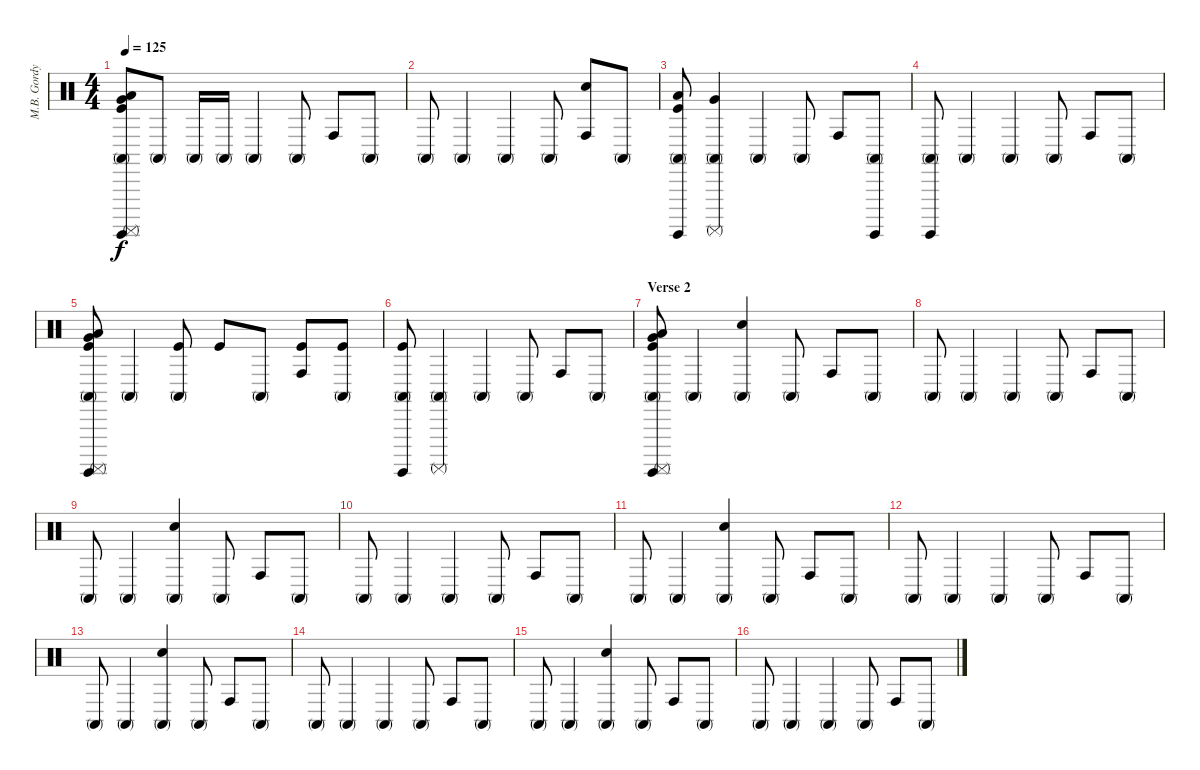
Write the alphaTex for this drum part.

\track ("M.B. Gordy [Percüsion]" "M.B. Gordy") {instrument percussion}
\staff {score}
\articulation defaults
\ts (4 4)
\tempo 125
\clef neutral
\ks c
("Surdo (mute)" "Surdo (hit)" "Very Low Tom (hit)" "Conga high (mute)" "Low Floor Tom (hit)" "Kick (hit)").8{dy f} "Conga high (mute)".8 "Conga high (mute)".16 "Conga high (mute)".16 "Conga high (mute)".4 "Conga high (mute)".8 "Conga high (hit)".8 "Conga high (mute)".8 |
"Conga high (mute)".8 "Conga high (mute)".4 "Conga high (mute)".4 "Conga high (mute)".8 ("Hand Clap (hit)" "Conga high (hit)").8 "Conga high (mute)".8 |
("Surdo (hit)" "Conga high (mute)" "Low Floor Tom (hit)" "Kick (hit)").8 ("Surdo (mute)" "Conga high (mute)" "Very Low Tom (hit)").4 "Conga high (mute)".4 "Conga high (mute)".8 "Conga high (hit)".8 ("Surdo (hit)" "Conga high (mute)").8 |
("Surdo (hit)" "Conga high (mute)").8 "Conga high (mute)".4 "Conga high (mute)".4 "Conga high (mute)".8 "Conga high (hit)".8 "Conga high (mute)".8 |
("Surdo (mute)" "Surdo (hit)" "Very Low Tom (hit)" "Conga high (mute)" "Low Floor Tom (hit)" "Kick (hit)").8 "Conga high (mute)".4 ("Conga high (mute)" "Kick (hit)").8 "Kick (hit)".8 "Conga high (mute)".8 ("Conga high (hit)" "Kick (hit)").8 ("Conga high (mute)" "Kick (hit)").8 |
("Surdo (hit)" "Conga high (mute)" "Kick (hit)").8 ("Surdo (mute)" "Conga high (mute)").4 "Conga high (mute)".4 "Conga high (mute)".8 "Conga high (hit)".8 "Conga high (mute)".8 |
\section ("" "Verse 2")
("Surdo (mute)" "Surdo (hit)" "Very Low Tom (hit)" "Conga high (mute)" "Low Floor Tom (hit)" "Kick (hit)").8 "Conga high (mute)".4 ("Hand Clap (hit)" "Conga high (mute)").4 "Conga high (mute)".8 "Conga high (hit)".8 "Conga high (mute)".8 |
"Conga high (mute)".8 "Conga high (mute)".4 "Conga high (mute)".4 "Conga high (mute)".8 "Conga high (hit)".8 "Conga high (mute)".8 |
"Conga high (mute)".8 "Conga high (mute)".4 ("Hand Clap (hit)" "Conga high (mute)").4 "Conga high (mute)".8 "Conga high (hit)".8 "Conga high (mute)".8 |
"Conga high (mute)".8 "Conga high (mute)".4 "Conga high (mute)".4 "Conga high (mute)".8 "Conga high (hit)".8 "Conga high (mute)".8 |
"Conga high (mute)".8 "Conga high (mute)".4 ("Hand Clap (hit)" "Conga high (mute)").4 "Conga high (mute)".8 "Conga high (hit)".8 "Conga high (mute)".8 |
"Conga high (mute)".8 "Conga high (mute)".4 "Conga high (mute)".4 "Conga high (mute)".8 "Conga high (hit)".8 "Conga high (mute)".8 |
"Conga high (mute)".8 "Conga high (mute)".4 ("Hand Clap (hit)" "Conga high (mute)").4 "Conga high (mute)".8 "Conga high (hit)".8 "Conga high (mute)".8 |
"Conga high (mute)".8 "Conga high (mute)".4 "Conga high (mute)".4 "Conga high (mute)".8 "Conga high (hit)".8 "Conga high (mute)".8 |
"Conga high (mute)".8 "Conga high (mute)".4 ("Hand Clap (hit)" "Conga high (mute)").4 "Conga high (mute)".8 "Conga high (hit)".8 "Conga high (mute)".8 |
"Conga high (mute)".8 "Conga high (mute)".4 "Conga high (mute)".4 "Conga high (mute)".8 "Conga high (hit)".8 "Conga high (mute)".8
